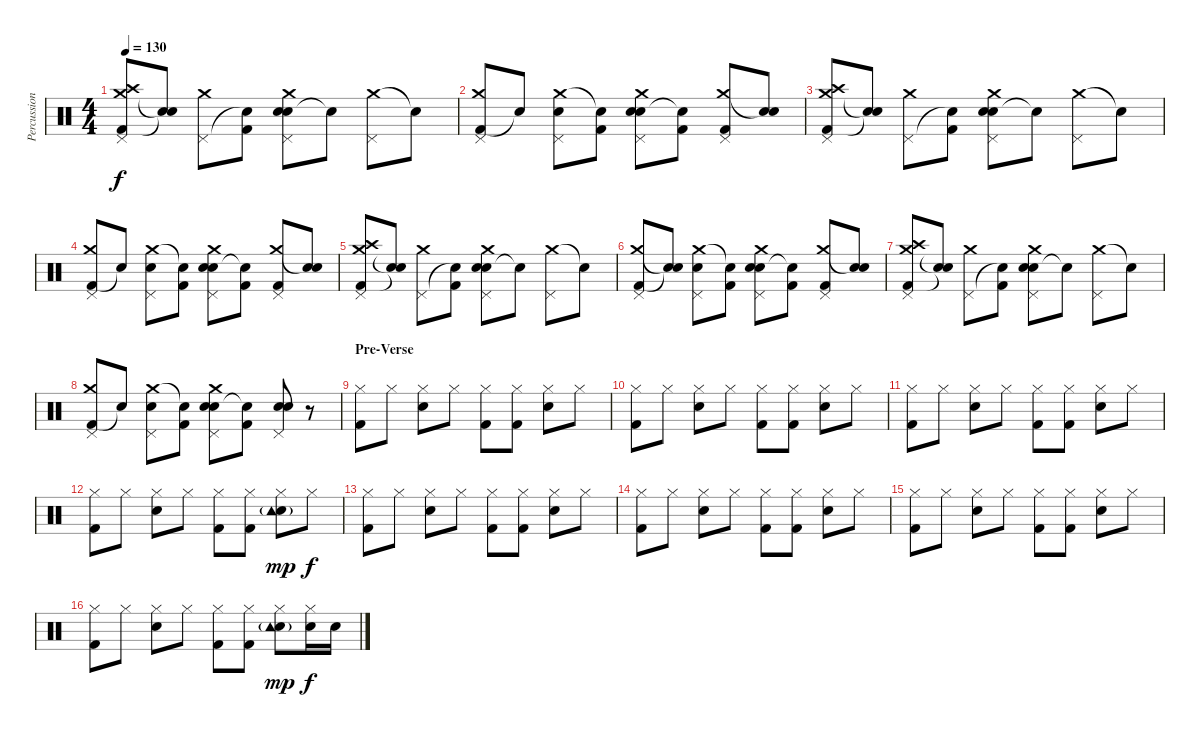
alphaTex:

\track ("Percussion" "Percussion") {instrument percussion}
\staff {score}
\articulation defaults
\ts (4 4)
\tempo 130
\clef neutral
\ks c
("Kick (hit) 2" "Crash medium (hit)" "Crash high (hit)" "Pedal Hi-Hat (hit)").8{dy f} ("Snare (hit)"{t} "Snare (hit)"{t}).8 ("Crash medium (hit)" "Pedal Hi-Hat (hit)").8 ("Kick (hit) 2" "Snare (hit)"{t}).8 ("Electric Snare (hit)" "Electric Snare (hit)" "Crash medium (hit)" "Pedal Hi-Hat (hit)").8 "Snare (hit)"{t}.8 ("Crash medium (hit)" "Pedal Hi-Hat (hit)").8 "Snare (hit)"{t}.8 |
("Kick (hit) 2" "Crash medium (hit)" "Pedal Hi-Hat (hit)").8 "Snare (hit)"{t}.8 ("Electric Snare (hit)" "Crash medium (hit)" "Pedal Hi-Hat (hit)").8 ("Kick (hit) 2" "Snare (hit)"{t}).8 ("Electric Snare (hit)" "Electric Snare (hit)" "Crash medium (hit)" "Pedal Hi-Hat (hit)").8 ("Kick (hit) 2" "Snare (hit)"{t}).8 ("Kick (hit) 2" "Crash medium (hit)" "Pedal Hi-Hat (hit)").8 ("Electric Snare (hit)" "Snare (hit)"{t}).8 |
("Kick (hit) 2" "Crash medium (hit)" "Crash high (hit)" "Pedal Hi-Hat (hit)").8 ("Snare (hit)"{t} "Snare (hit)"{t}).8 ("Crash medium (hit)" "Pedal Hi-Hat (hit)").8 ("Kick (hit) 2" "Snare (hit)"{t}).8 ("Electric Snare (hit)" "Electric Snare (hit)" "Crash medium (hit)" "Pedal Hi-Hat (hit)").8 "Snare (hit)"{t}.8 ("Crash medium (hit)" "Pedal Hi-Hat (hit)").8 "Snare (hit)"{t}.8 |
("Kick (hit) 2" "Crash medium (hit)" "Pedal Hi-Hat (hit)").8 "Snare (hit)"{t}.8 ("Electric Snare (hit)" "Crash medium (hit)" "Pedal Hi-Hat (hit)").8 ("Kick (hit) 2" "Snare (hit)"{t}).8 ("Electric Snare (hit)" "Electric Snare (hit)" "Crash medium (hit)" "Pedal Hi-Hat (hit)").8 ("Kick (hit) 2" "Snare (hit)"{t}).8 ("Kick (hit) 2" "Crash medium (hit)" "Pedal Hi-Hat (hit)").8 ("Electric Snare (hit)" "Snare (hit)"{t}).8 |
("Kick (hit) 2" "Crash medium (hit)" "Crash high (hit)" "Pedal Hi-Hat (hit)").8 ("Snare (hit)"{t} "Snare (hit)"{t}).8 ("Crash medium (hit)" "Pedal Hi-Hat (hit)").8 ("Kick (hit) 2" "Snare (hit)"{t}).8 ("Electric Snare (hit)" "Electric Snare (hit)" "Crash medium (hit)" "Pedal Hi-Hat (hit)").8 "Snare (hit)"{t}.8 ("Crash medium (hit)" "Pedal Hi-Hat (hit)").8 "Snare (hit)"{t}.8 |
("Kick (hit) 2" "Crash medium (hit)" "Pedal Hi-Hat (hit)").8 ("Snare (hit)"{t} "Snare (hit)"{t}).8 ("Electric Snare (hit)" "Crash medium (hit)" "Pedal Hi-Hat (hit)").8 ("Kick (hit) 2" "Snare (hit)"{t}).8 ("Electric Snare (hit)" "Electric Snare (hit)" "Crash medium (hit)" "Pedal Hi-Hat (hit)").8 ("Kick (hit) 2" "Snare (hit)"{t}).8 ("Kick (hit) 2" "Crash medium (hit)" "Pedal Hi-Hat (hit)").8 ("Electric Snare (hit)" "Snare (hit)"{t}).8 |
("Kick (hit) 2" "Crash medium (hit)" "Crash high (hit)" "Pedal Hi-Hat (hit)").8 ("Snare (hit)"{t} "Snare (hit)"{t}).8 ("Crash medium (hit)" "Pedal Hi-Hat (hit)").8 ("Kick (hit) 2" "Snare (hit)"{t}).8 ("Electric Snare (hit)" "Electric Snare (hit)" "Crash medium (hit)" "Pedal Hi-Hat (hit)").8 "Snare (hit)"{t}.8 ("Crash medium (hit)" "Pedal Hi-Hat (hit)").8 "Snare (hit)"{t}.8 |
("Kick (hit) 2" "Crash medium (hit)" "Pedal Hi-Hat (hit)").8 "Snare (hit)"{t}.8 ("Electric Snare (hit)" "Crash medium (hit)" "Pedal Hi-Hat (hit)").8 ("Kick (hit) 2" "Snare (hit)"{t}).8 ("Electric Snare (hit)" "Electric Snare (hit)" "Crash medium (hit)" "Pedal Hi-Hat (hit)").8 ("Kick (hit) 2" "Snare (hit)"{t}).8 ("Electric Snare (hit)" "Electric Snare (hit)" "Pedal Hi-Hat (hit)").8 r.8 |
\section ("" "Pre-Verse")
("Kick (hit) 2" "Hi-Hat (closed)").8 "Hi-Hat (closed)".8 ("Electric Snare (hit)" "Hi-Hat (closed)").8 "Hi-Hat (closed)".8 ("Kick (hit) 2" "Hi-Hat (closed)").8 ("Kick (hit) 2" "Hi-Hat (closed)").8 ("Electric Snare (hit)" "Hi-Hat (closed)").8 "Hi-Hat (closed)".8 |
("Kick (hit) 2" "Hi-Hat (closed)").8 "Hi-Hat (closed)".8 ("Electric Snare (hit)" "Hi-Hat (closed)").8 "Hi-Hat (closed)".8 ("Kick (hit) 2" "Hi-Hat (closed)").8 ("Kick (hit) 2" "Hi-Hat (closed)").8 ("Electric Snare (hit)" "Hi-Hat (closed)").8 "Hi-Hat (closed)".8 |
("Kick (hit) 2" "Hi-Hat (closed)").8 "Hi-Hat (closed)".8 ("Electric Snare (hit)" "Hi-Hat (closed)").8 "Hi-Hat (closed)".8 ("Kick (hit) 2" "Hi-Hat (closed)").8 ("Kick (hit) 2" "Hi-Hat (closed)").8 ("Electric Snare (hit)" "Hi-Hat (closed)").8 "Hi-Hat (closed)".8 |
("Kick (hit) 2" "Hi-Hat (closed)").8 "Hi-Hat (closed)".8 ("Electric Snare (hit)" "Hi-Hat (closed)").8 "Hi-Hat (closed)".8 ("Kick (hit) 2" "Hi-Hat (closed)").8 ("Kick (hit) 2" "Hi-Hat (closed)").8 ("Electric Snare (hit)" "Hi-Hat (closed)" "Tambourine (hit)"{g}).8{dy mp} "Hi-Hat (closed)".8{dy f} |
("Kick (hit) 2" "Hi-Hat (closed)").8 "Hi-Hat (closed)".8 ("Electric Snare (hit)" "Hi-Hat (closed)").8 "Hi-Hat (closed)".8 ("Kick (hit) 2" "Hi-Hat (closed)").8 ("Kick (hit) 2" "Hi-Hat (closed)").8 ("Electric Snare (hit)" "Hi-Hat (closed)").8 "Hi-Hat (closed)".8 |
("Kick (hit) 2" "Hi-Hat (closed)").8 "Hi-Hat (closed)".8 ("Electric Snare (hit)" "Hi-Hat (closed)").8 "Hi-Hat (closed)".8 ("Kick (hit) 2" "Hi-Hat (closed)").8 ("Kick (hit) 2" "Hi-Hat (closed)").8 ("Electric Snare (hit)" "Hi-Hat (closed)").8 "Hi-Hat (closed)".8 |
("Kick (hit) 2" "Hi-Hat (closed)").8 "Hi-Hat (closed)".8 ("Electric Snare (hit)" "Hi-Hat (closed)").8 "Hi-Hat (closed)".8 ("Kick (hit) 2" "Hi-Hat (closed)").8 ("Kick (hit) 2" "Hi-Hat (closed)").8 ("Electric Snare (hit)" "Hi-Hat (closed)").8 "Hi-Hat (closed)".8 |
("Kick (hit) 2" "Hi-Hat (closed)").8 "Hi-Hat (closed)".8 ("Electric Snare (hit)" "Hi-Hat (closed)").8 "Hi-Hat (closed)".8 ("Kick (hit) 2" "Hi-Hat (closed)").8 ("Kick (hit) 2" "Hi-Hat (closed)").8 ("Electric Snare (hit)" "Hi-Hat (closed)" "Tambourine (hit)"{g}).8{dy mp} ("Electric Snare (hit)" "Hi-Hat (closed)").16{dy f} "Electric Snare (hit)".16
